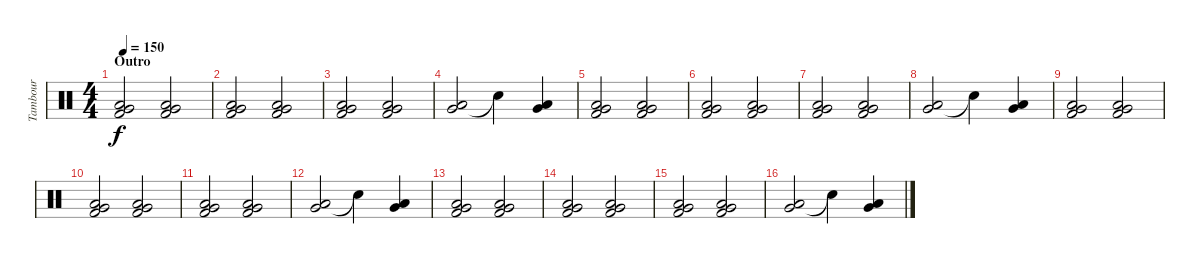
\track ("Tambour" "Tambour") {instrument percussion}
\staff {score}
\articulation defaults
\ts (4 4)
\section ("" "Outro")
\tempo 150
\clef neutral
\ks c
("Kick (hit) 2" "Very Low Tom (hit)" "Low Tom (hit)").2{dy f} ("Kick (hit) 2" "Very Low Tom (hit)" "Low Tom (hit)").2 |
("Kick (hit) 2" "Very Low Tom (hit)" "Low Tom (hit)").2 ("Kick (hit) 2" "Very Low Tom (hit)" "Low Tom (hit)").2 |
("Kick (hit) 2" "Very Low Tom (hit)" "Low Tom (hit)").2 ("Kick (hit) 2" "Very Low Tom (hit)" "Low Tom (hit)").2 |
("Very Low Tom (hit)" "Low Tom (hit)").2 "Snare (hit)"{t}.4 ("Very Low Tom (hit)" "Low Tom (hit)").4 |
("Kick (hit) 2" "Very Low Tom (hit)" "Low Tom (hit)").2 ("Kick (hit) 2" "Very Low Tom (hit)" "Low Tom (hit)").2 |
("Kick (hit) 2" "Very Low Tom (hit)" "Low Tom (hit)").2 ("Kick (hit) 2" "Very Low Tom (hit)" "Low Tom (hit)").2 |
("Kick (hit) 2" "Very Low Tom (hit)" "Low Tom (hit)").2 ("Kick (hit) 2" "Very Low Tom (hit)" "Low Tom (hit)").2 |
("Very Low Tom (hit)" "Low Tom (hit)").2 "Snare (hit)"{t}.4 ("Very Low Tom (hit)" "Low Tom (hit)").4 |
("Kick (hit) 2" "Very Low Tom (hit)" "Low Tom (hit)").2 ("Kick (hit) 2" "Very Low Tom (hit)" "Low Tom (hit)").2 |
("Kick (hit) 2" "Very Low Tom (hit)" "Low Tom (hit)").2 ("Kick (hit) 2" "Very Low Tom (hit)" "Low Tom (hit)").2 |
("Kick (hit) 2" "Very Low Tom (hit)" "Low Tom (hit)").2 ("Kick (hit) 2" "Very Low Tom (hit)" "Low Tom (hit)").2 |
("Very Low Tom (hit)" "Low Tom (hit)").2 "Snare (hit)"{t}.4 ("Very Low Tom (hit)" "Low Tom (hit)").4 |
("Kick (hit) 2" "Very Low Tom (hit)" "Low Tom (hit)").2 ("Kick (hit) 2" "Very Low Tom (hit)" "Low Tom (hit)").2 |
("Kick (hit) 2" "Very Low Tom (hit)" "Low Tom (hit)").2 ("Kick (hit) 2" "Very Low Tom (hit)" "Low Tom (hit)").2 |
("Kick (hit) 2" "Very Low Tom (hit)" "Low Tom (hit)").2 ("Kick (hit) 2" "Very Low Tom (hit)" "Low Tom (hit)").2 |
("Very Low Tom (hit)" "Low Tom (hit)").2 "Snare (hit)"{t}.4 ("Very Low Tom (hit)" "Low Tom (hit)").4
